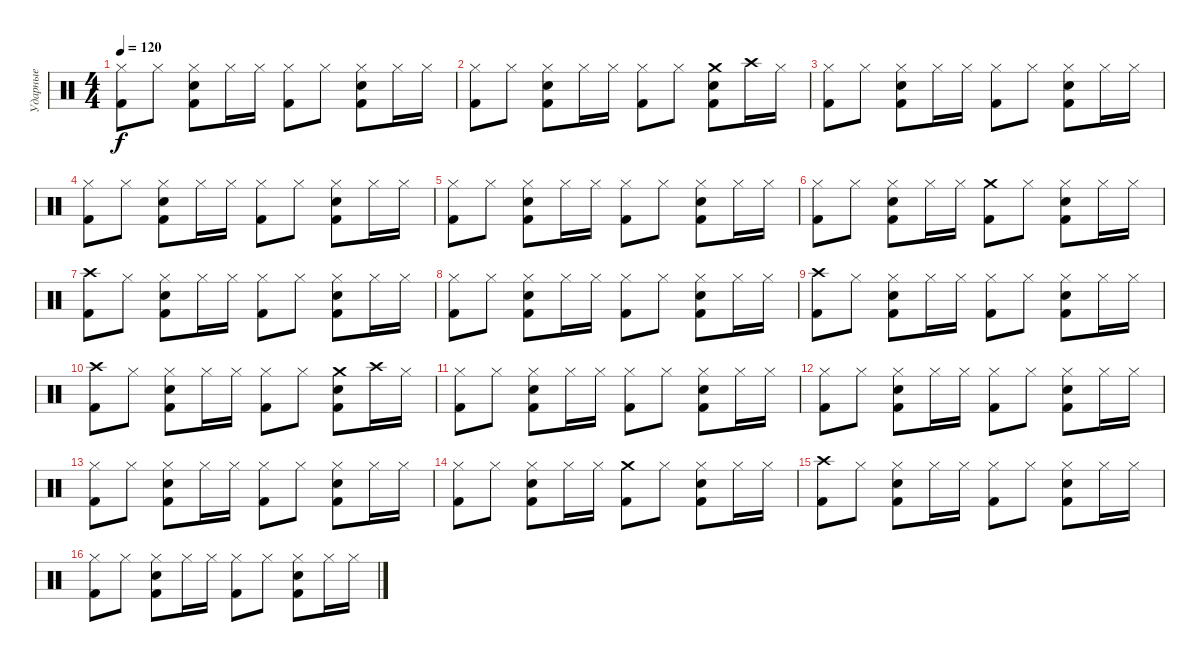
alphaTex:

\track ("Ударные" "Ударные") {instrument percussion}
\staff {score}
\articulation defaults
\ts (4 4)
\tempo 120
\clef neutral
\ks c
("Hi-Hat (closed)" "Kick (hit) 2").8{dy f} "Hi-Hat (closed)".8 ("Hi-Hat (closed)" "Kick (hit) 2" "Electric Snare (hit)").8 "Hi-Hat (closed)".16 "Hi-Hat (closed)".16 ("Hi-Hat (closed)" "Kick (hit) 2").8 "Hi-Hat (closed)".8 ("Hi-Hat (closed)" "Kick (hit) 2" "Electric Snare (hit)").8 "Hi-Hat (closed)".16 "Hi-Hat (closed)".16 |
("Hi-Hat (closed)" "Kick (hit) 2").8 "Hi-Hat (closed)".8 ("Hi-Hat (closed)" "Kick (hit) 2" "Electric Snare (hit)").8 "Hi-Hat (closed)".16 "Hi-Hat (closed)".16 ("Hi-Hat (closed)" "Kick (hit) 2").8 "Hi-Hat (closed)".8 ("Crash medium (hit)" "Kick (hit) 2" "Electric Snare (hit)").8 "Crash high (hit)".16 "Hi-Hat (closed)".16 |
("Hi-Hat (closed)" "Kick (hit) 2").8 "Hi-Hat (closed)".8 ("Hi-Hat (closed)" "Kick (hit) 2" "Electric Snare (hit)").8 "Hi-Hat (closed)".16 "Hi-Hat (closed)".16 ("Hi-Hat (closed)" "Kick (hit) 2").8 "Hi-Hat (closed)".8 ("Hi-Hat (closed)" "Kick (hit) 2" "Electric Snare (hit)").8 "Hi-Hat (closed)".16 "Hi-Hat (closed)".16 |
("Hi-Hat (closed)" "Kick (hit) 2").8 "Hi-Hat (closed)".8 ("Hi-Hat (closed)" "Kick (hit) 2" "Electric Snare (hit)").8 "Hi-Hat (closed)".16 "Hi-Hat (closed)".16 ("Hi-Hat (closed)" "Kick (hit) 2").8 "Hi-Hat (closed)".8 ("Hi-Hat (closed)" "Kick (hit) 2" "Electric Snare (hit)").8 "Hi-Hat (closed)".16 "Hi-Hat (closed)".16 |
("Hi-Hat (closed)" "Kick (hit) 2").8 "Hi-Hat (closed)".8 ("Hi-Hat (closed)" "Kick (hit) 2" "Electric Snare (hit)").8 "Hi-Hat (closed)".16 "Hi-Hat (closed)".16 ("Hi-Hat (closed)" "Kick (hit) 2").8 "Hi-Hat (closed)".8 ("Hi-Hat (closed)" "Kick (hit) 2" "Electric Snare (hit)").8 "Hi-Hat (closed)".16 "Hi-Hat (closed)".16 |
("Hi-Hat (closed)" "Kick (hit) 2").8 "Hi-Hat (closed)".8 ("Hi-Hat (closed)" "Kick (hit) 2" "Electric Snare (hit)").8 "Hi-Hat (closed)".16 "Hi-Hat (closed)".16 ("Crash medium (hit)" "Kick (hit) 2").8 "Hi-Hat (closed)".8 ("Hi-Hat (closed)" "Kick (hit) 2" "Electric Snare (hit)").8 "Hi-Hat (closed)".16 "Hi-Hat (closed)".16 |
("Crash high (hit)" "Kick (hit) 2").8 "Hi-Hat (closed)".8 ("Hi-Hat (closed)" "Kick (hit) 2" "Electric Snare (hit)").8 "Hi-Hat (closed)".16 "Hi-Hat (closed)".16 ("Hi-Hat (closed)" "Kick (hit) 2").8 "Hi-Hat (closed)".8 ("Hi-Hat (closed)" "Kick (hit) 2" "Electric Snare (hit)").8 "Hi-Hat (closed)".16 "Hi-Hat (closed)".16 |
("Hi-Hat (closed)" "Kick (hit) 2").8 "Hi-Hat (closed)".8 ("Hi-Hat (closed)" "Kick (hit) 2" "Electric Snare (hit)").8 "Hi-Hat (closed)".16 "Hi-Hat (closed)".16 ("Hi-Hat (closed)" "Kick (hit) 2").8 "Hi-Hat (closed)".8 ("Hi-Hat (closed)" "Kick (hit) 2" "Electric Snare (hit)").8 "Hi-Hat (closed)".16 "Hi-Hat (closed)".16 |
("Crash high (hit)" "Kick (hit) 2").8 "Hi-Hat (closed)".8 ("Hi-Hat (closed)" "Kick (hit) 2" "Electric Snare (hit)").8 "Hi-Hat (closed)".16 "Hi-Hat (closed)".16 ("Hi-Hat (closed)" "Kick (hit) 2").8 "Hi-Hat (closed)".8 ("Hi-Hat (closed)" "Kick (hit) 2" "Electric Snare (hit)").8 "Hi-Hat (closed)".16 "Hi-Hat (closed)".16 |
("Crash high (hit)" "Kick (hit) 2").8 "Hi-Hat (closed)".8 ("Hi-Hat (closed)" "Kick (hit) 2" "Electric Snare (hit)").8 "Hi-Hat (closed)".16 "Hi-Hat (closed)".16 ("Hi-Hat (closed)" "Kick (hit) 2").8 "Hi-Hat (closed)".8 ("Crash medium (hit)" "Kick (hit) 2" "Electric Snare (hit)").8 "Crash high (hit)".16 "Hi-Hat (closed)".16 |
("Hi-Hat (closed)" "Kick (hit) 2").8 "Hi-Hat (closed)".8 ("Hi-Hat (closed)" "Kick (hit) 2" "Electric Snare (hit)").8 "Hi-Hat (closed)".16 "Hi-Hat (closed)".16 ("Hi-Hat (closed)" "Kick (hit) 2").8 "Hi-Hat (closed)".8 ("Hi-Hat (closed)" "Kick (hit) 2" "Electric Snare (hit)").8 "Hi-Hat (closed)".16 "Hi-Hat (closed)".16 |
("Hi-Hat (closed)" "Kick (hit) 2").8 "Hi-Hat (closed)".8 ("Hi-Hat (closed)" "Kick (hit) 2" "Electric Snare (hit)").8 "Hi-Hat (closed)".16 "Hi-Hat (closed)".16 ("Hi-Hat (closed)" "Kick (hit) 2").8 "Hi-Hat (closed)".8 ("Hi-Hat (closed)" "Kick (hit) 2" "Electric Snare (hit)").8 "Hi-Hat (closed)".16 "Hi-Hat (closed)".16 |
("Hi-Hat (closed)" "Kick (hit) 2").8 "Hi-Hat (closed)".8 ("Hi-Hat (closed)" "Kick (hit) 2" "Electric Snare (hit)").8 "Hi-Hat (closed)".16 "Hi-Hat (closed)".16 ("Hi-Hat (closed)" "Kick (hit) 2").8 "Hi-Hat (closed)".8 ("Hi-Hat (closed)" "Kick (hit) 2" "Electric Snare (hit)").8 "Hi-Hat (closed)".16 "Hi-Hat (closed)".16 |
("Hi-Hat (closed)" "Kick (hit) 2").8 "Hi-Hat (closed)".8 ("Hi-Hat (closed)" "Kick (hit) 2" "Electric Snare (hit)").8 "Hi-Hat (closed)".16 "Hi-Hat (closed)".16 ("Crash medium (hit)" "Kick (hit) 2").8 "Hi-Hat (closed)".8 ("Hi-Hat (closed)" "Kick (hit) 2" "Electric Snare (hit)").8 "Hi-Hat (closed)".16 "Hi-Hat (closed)".16 |
("Crash high (hit)" "Kick (hit) 2").8 "Hi-Hat (closed)".8 ("Hi-Hat (closed)" "Kick (hit) 2" "Electric Snare (hit)").8 "Hi-Hat (closed)".16 "Hi-Hat (closed)".16 ("Hi-Hat (closed)" "Kick (hit) 2").8 "Hi-Hat (closed)".8 ("Hi-Hat (closed)" "Kick (hit) 2" "Electric Snare (hit)").8 "Hi-Hat (closed)".16 "Hi-Hat (closed)".16 |
("Hi-Hat (closed)" "Kick (hit) 2").8 "Hi-Hat (closed)".8 ("Hi-Hat (closed)" "Kick (hit) 2" "Electric Snare (hit)").8 "Hi-Hat (closed)".16 "Hi-Hat (closed)".16 ("Hi-Hat (closed)" "Kick (hit) 2").8 "Hi-Hat (closed)".8 ("Hi-Hat (closed)" "Kick (hit) 2" "Electric Snare (hit)").8 "Hi-Hat (closed)".16 "Hi-Hat (closed)".16
